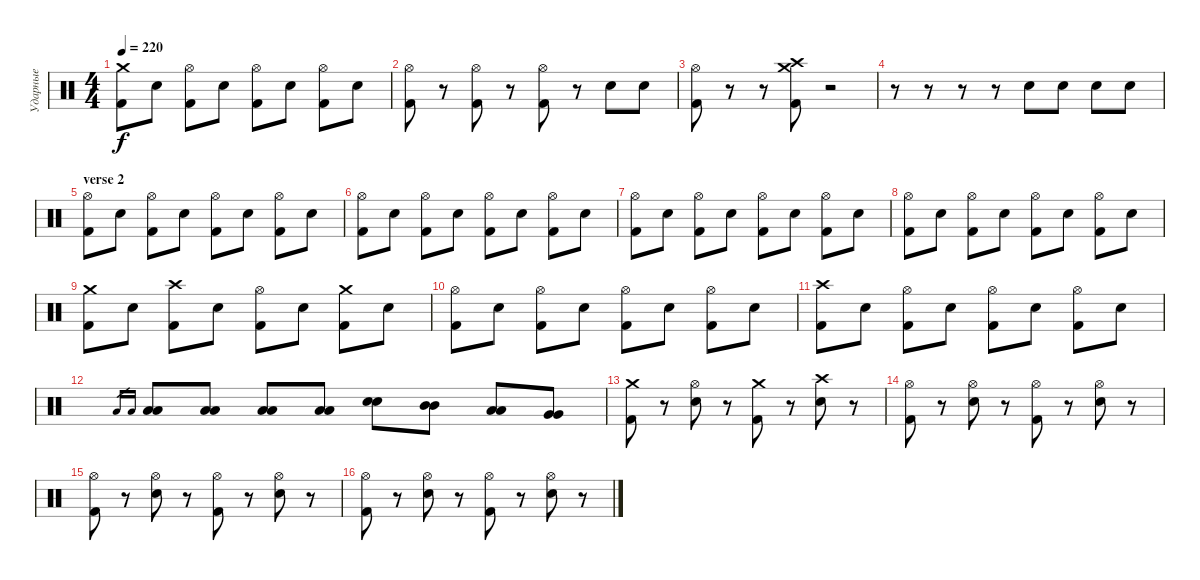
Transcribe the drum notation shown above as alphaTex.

\track ("Ударные" "Ударные") {instrument percussion}
\staff {score}
\articulation defaults
\ts (4 4)
\tempo 220
\clef neutral
\ks c
("Crash medium (hit)" "Kick (hit) 2").8{dy f} "Electric Snare (hit)".8 ("Hi-Hat (open)" "Kick (hit) 2").8 "Electric Snare (hit)".8 ("Hi-Hat (open)" "Kick (hit) 2").8 "Electric Snare (hit)".8 ("Hi-Hat (open)" "Kick (hit) 2").8 "Electric Snare (hit)".8 |
("Hi-Hat (open)" "Kick (hit) 2").8 r.8 ("Hi-Hat (open)" "Kick (hit) 2").8 r.8 ("Hi-Hat (open)" "Kick (hit) 2").8 r.8 "Electric Snare (hit)".8 "Electric Snare (hit)".8 |
("Hi-Hat (open)" "Kick (hit) 2").8 r.8 r.8 ("Crash high (hit)" "Crash medium (hit)" "Kick (hit) 2").8 r.2 |
r.8 r.8 r.8 r.8 "Electric Snare (hit)".8 "Electric Snare (hit)".8 "Electric Snare (hit)".8 "Electric Snare (hit)".8 |
\section ("" "verse 2")
("Hi-Hat (open)" "Kick (hit) 2").8 "Electric Snare (hit)".8 ("Hi-Hat (open)" "Kick (hit) 2").8 "Electric Snare (hit)".8 ("Hi-Hat (open)" "Kick (hit) 2").8 "Electric Snare (hit)".8 ("Hi-Hat (open)" "Kick (hit) 2").8 "Electric Snare (hit)".8 |
("Hi-Hat (open)" "Kick (hit) 2").8 "Electric Snare (hit)".8 ("Hi-Hat (open)" "Kick (hit) 2").8 "Electric Snare (hit)".8 ("Hi-Hat (open)" "Kick (hit) 2").8 "Electric Snare (hit)".8 ("Hi-Hat (open)" "Kick (hit) 2").8 "Electric Snare (hit)".8 |
("Hi-Hat (open)" "Kick (hit) 2").8 "Electric Snare (hit)".8 ("Hi-Hat (open)" "Kick (hit) 2").8 "Electric Snare (hit)".8 ("Hi-Hat (open)" "Kick (hit) 2").8 "Electric Snare (hit)".8 ("Hi-Hat (open)" "Kick (hit) 2").8 "Electric Snare (hit)".8 |
("Hi-Hat (open)" "Kick (hit) 2").8 "Electric Snare (hit)".8 ("Hi-Hat (open)" "Kick (hit) 2").8 "Electric Snare (hit)".8 ("Hi-Hat (open)" "Kick (hit) 2").8 "Electric Snare (hit)".8 ("Hi-Hat (open)" "Kick (hit) 2").8 "Electric Snare (hit)".8 |
("Crash medium (hit)" "Kick (hit) 2").8 "Electric Snare (hit)".8 ("Crash high (hit)" "Kick (hit) 2").8 "Electric Snare (hit)".8 ("Hi-Hat (open)" "Kick (hit) 2").8 "Electric Snare (hit)".8 ("Crash medium (hit)" "Kick (hit) 2").8 "Electric Snare (hit)".8 |
("Hi-Hat (open)" "Kick (hit) 2").8 "Electric Snare (hit)".8 ("Hi-Hat (open)" "Kick (hit) 2").8 "Electric Snare (hit)".8 ("Hi-Hat (open)" "Kick (hit) 2").8 "Electric Snare (hit)".8 ("Hi-Hat (open)" "Kick (hit) 2").8 "Electric Snare (hit)".8 |
("Crash high (hit)" "Kick (hit) 2").8 "Electric Snare (hit)".8 ("Hi-Hat (open)" "Kick (hit) 2").8 "Electric Snare (hit)".8 ("Hi-Hat (open)" "Kick (hit) 2").8 "Electric Snare (hit)".8 ("Hi-Hat (open)" "Kick (hit) 2").8 "Electric Snare (hit)".8 |
"Low Tom (hit)".16{gr} "Low Tom (hit)".16{gr} ("Low Tom (hit)" "Low Tom (hit)").8 ("Low Tom (hit)" "Low Tom (hit)").8 ("Low Tom (hit)" "Low Tom (hit)").8 ("Low Tom (hit)" "Low Tom (hit)").8 ("Electric Snare (hit)" "Electric Snare (hit)").8 ("Mid Tom (hit)" "Mid Tom (hit)").8 ("Low Tom (hit)" "Low Tom (hit)").8 ("Very Low Tom (hit)" "Very Low Tom (hit)").8 |
("Crash medium (hit)" "Kick (hit) 2").8 r.8 ("Hi-Hat (open)" "Electric Snare (hit)").8 r.8 ("Crash medium (hit)" "Kick (hit) 2").8 r.8 ("Crash high (hit)" "Electric Snare (hit)").8 r.8 |
("Hi-Hat (open)" "Kick (hit) 2").8 r.8 ("Hi-Hat (open)" "Electric Snare (hit)").8 r.8 ("Hi-Hat (open)" "Kick (hit) 2").8 r.8 ("Hi-Hat (open)" "Electric Snare (hit)").8 r.8 |
("Hi-Hat (open)" "Kick (hit) 2").8 r.8 ("Hi-Hat (open)" "Electric Snare (hit)").8 r.8 ("Hi-Hat (open)" "Kick (hit) 2").8 r.8 ("Hi-Hat (open)" "Electric Snare (hit)").8 r.8 |
("Hi-Hat (open)" "Kick (hit) 2").8 r.8 ("Hi-Hat (open)" "Electric Snare (hit)").8 r.8 ("Hi-Hat (open)" "Kick (hit) 2").8 r.8 ("Hi-Hat (open)" "Electric Snare (hit)").8 r.8
